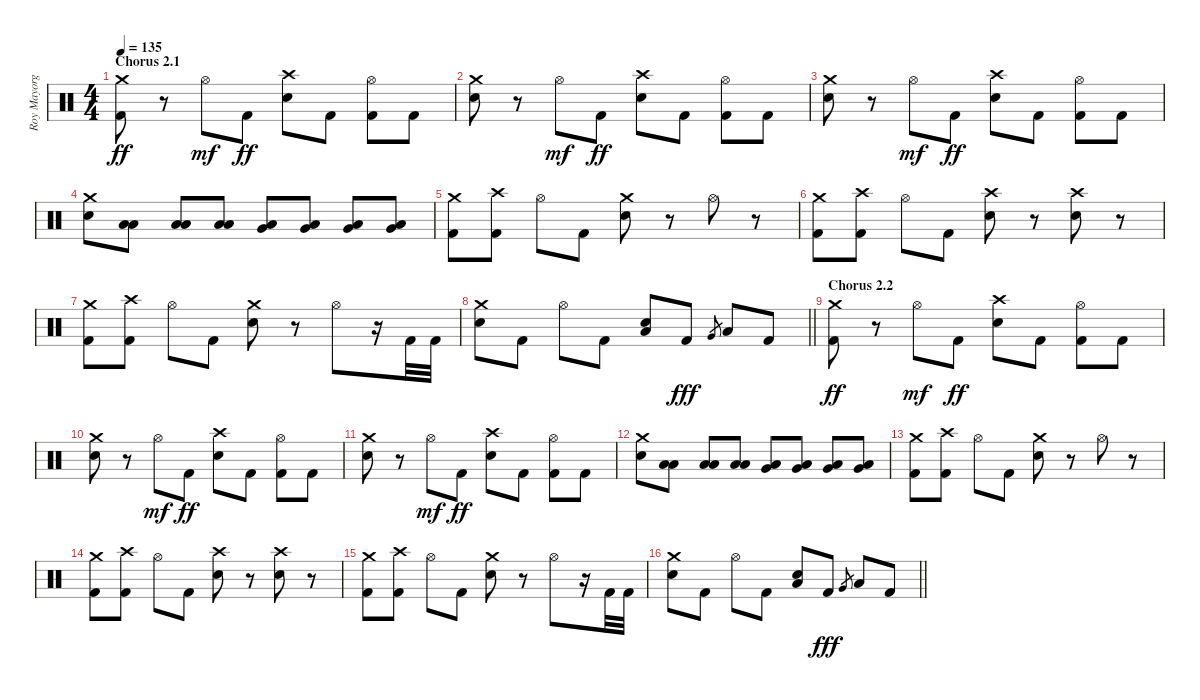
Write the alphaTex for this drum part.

\track ("Roy Mayorga" "Roy Mayorg") {instrument percussion}
\staff {score}
\articulation defaults
\ts (4 4)
\section ("" "Chorus 2.1")
\tempo 135
\clef neutral
\ks c
("Crash medium (hit)" "Kick (hit) 2").8{dy ff} r.8 "Hi-Hat (open)".8{dy mf} "Kick (hit) 2".8{dy ff} ("Crash high (hit)" "Electric Snare (hit)").8 "Kick (hit) 2".8 ("Hi-Hat (open)" "Kick (hit) 2").8 "Kick (hit) 2".8 |
("Crash medium (hit)" "Electric Snare (hit)").8 r.8 "Hi-Hat (open)".8{dy mf} "Kick (hit) 2".8{dy ff} ("Crash high (hit)" "Electric Snare (hit)").8 "Kick (hit) 2".8 ("Hi-Hat (open)" "Kick (hit) 2").8 "Kick (hit) 2".8 |
("Crash medium (hit)" "Electric Snare (hit)").8 r.8 "Hi-Hat (open)".8{dy mf} "Kick (hit) 2".8{dy ff} ("Crash high (hit)" "Electric Snare (hit)").8 "Kick (hit) 2".8 ("Hi-Hat (open)" "Kick (hit) 2").8 "Kick (hit) 2".8 |
("Crash medium (hit)" "Electric Snare (hit)").8 ("Low Floor Tom (hit)" "Low Floor Tom (hit)").8 ("Low Floor Tom (hit)" "Low Floor Tom (hit)").8 ("Low Floor Tom (hit)" "Low Floor Tom (hit)").8 ("Very Low Tom (hit)" "Low Floor Tom (hit)").8 ("Very Low Tom (hit)" "Low Floor Tom (hit)").8 ("Very Low Tom (hit)" "Low Floor Tom (hit)").8 ("Very Low Tom (hit)" "Low Floor Tom (hit)").8 |
("Crash medium (hit)" "Kick (hit) 2").8 ("Crash high (hit)" "Kick (hit) 2").8 "Hi-Hat (open)".8 "Kick (hit) 2".8 ("Crash medium (hit)" "Electric Snare (hit)").8 r.8 "Hi-Hat (open)".8 r.8 |
("Crash medium (hit)" "Kick (hit) 2").8 ("Crash high (hit)" "Kick (hit) 2").8 "Hi-Hat (open)".8 "Kick (hit) 2".8 ("Crash high (hit)" "Electric Snare (hit)").8 r.8 ("Crash high (hit)" "Electric Snare (hit)").8 r.8 |
("Crash medium (hit)" "Kick (hit) 2").8 ("Crash high (hit)" "Kick (hit) 2").8 "Hi-Hat (open)".8 "Kick (hit) 2".8 ("Crash medium (hit)" "Electric Snare (hit)").8 r.8 "Hi-Hat (open)".8 r.16 "Kick (hit) 2".32 "Kick (hit) 2".32 |
\barLineRight lightlight
("Crash medium (hit)" "Electric Snare (hit)").8 "Kick (hit) 2".8 "Hi-Hat (open)".8 "Kick (hit) 2".8 ("Electric Snare (hit)" "Low Floor Tom (hit)").8 "Kick (hit) 2".8{dy fff} "Very Low Tom (hit)".8{gr} "Low Tom (hit)".8 "Kick (hit) 2".8 |
\section ("" "Chorus 2.2")
("Crash medium (hit)" "Kick (hit) 2").8{dy ff} r.8 "Hi-Hat (open)".8{dy mf} "Kick (hit) 2".8{dy ff} ("Crash high (hit)" "Electric Snare (hit)").8 "Kick (hit) 2".8 ("Hi-Hat (open)" "Kick (hit) 2").8 "Kick (hit) 2".8 |
("Crash medium (hit)" "Electric Snare (hit)").8 r.8 "Hi-Hat (open)".8{dy mf} "Kick (hit) 2".8{dy ff} ("Crash high (hit)" "Electric Snare (hit)").8 "Kick (hit) 2".8 ("Hi-Hat (open)" "Kick (hit) 2").8 "Kick (hit) 2".8 |
("Crash medium (hit)" "Electric Snare (hit)").8 r.8 "Hi-Hat (open)".8{dy mf} "Kick (hit) 2".8{dy ff} ("Crash high (hit)" "Electric Snare (hit)").8 "Kick (hit) 2".8 ("Hi-Hat (open)" "Kick (hit) 2").8 "Kick (hit) 2".8 |
("Crash medium (hit)" "Electric Snare (hit)").8 ("Low Floor Tom (hit)" "Low Floor Tom (hit)").8 ("Low Floor Tom (hit)" "Low Floor Tom (hit)").8 ("Low Floor Tom (hit)" "Low Floor Tom (hit)").8 ("Very Low Tom (hit)" "Low Floor Tom (hit)").8 ("Very Low Tom (hit)" "Low Floor Tom (hit)").8 ("Very Low Tom (hit)" "Low Floor Tom (hit)").8 ("Very Low Tom (hit)" "Low Floor Tom (hit)").8 |
("Crash medium (hit)" "Kick (hit) 2").8 ("Crash high (hit)" "Kick (hit) 2").8 "Hi-Hat (open)".8 "Kick (hit) 2".8 ("Crash medium (hit)" "Electric Snare (hit)").8 r.8 "Hi-Hat (open)".8 r.8 |
("Crash medium (hit)" "Kick (hit) 2").8 ("Crash high (hit)" "Kick (hit) 2").8 "Hi-Hat (open)".8 "Kick (hit) 2".8 ("Crash high (hit)" "Electric Snare (hit)").8 r.8 ("Crash high (hit)" "Electric Snare (hit)").8 r.8 |
("Crash medium (hit)" "Kick (hit) 2").8 ("Crash high (hit)" "Kick (hit) 2").8 "Hi-Hat (open)".8 "Kick (hit) 2".8 ("Crash medium (hit)" "Electric Snare (hit)").8 r.8 "Hi-Hat (open)".8 r.16 "Kick (hit) 2".32 "Kick (hit) 2".32 |
\barLineRight lightlight
("Crash medium (hit)" "Electric Snare (hit)").8 "Kick (hit) 2".8 "Hi-Hat (open)".8 "Kick (hit) 2".8 ("Electric Snare (hit)" "Low Floor Tom (hit)").8 "Kick (hit) 2".8{dy fff} "Very Low Tom (hit)".8{gr} "Low Tom (hit)".8 "Kick (hit) 2".8
